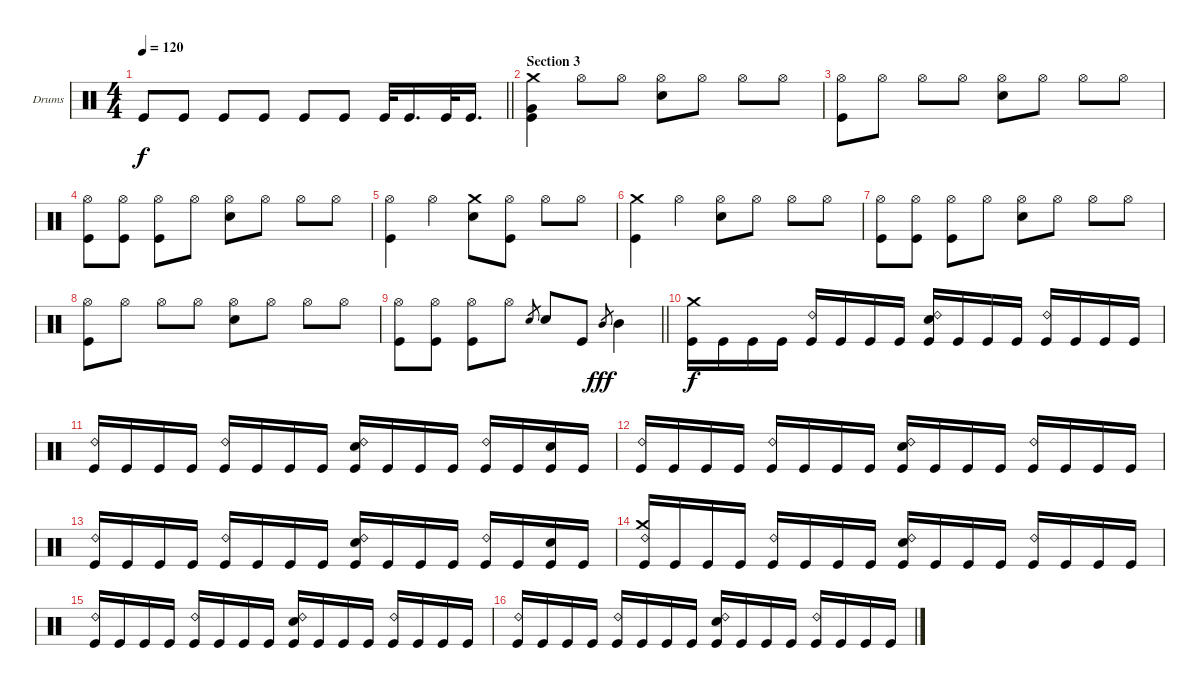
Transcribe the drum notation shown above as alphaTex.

\defaultSystemsLayout 4
\bracketExtendMode groupsimilarinstruments
\firstSystemTrackNameOrientation horizontal
\otherSystemsTrackNameOrientation horizontal
\track ("Drums" "Drums") {instrument percussion}
\staff {score}
\articulation defaults
\ts (4 4)
\tempo 120
\clef neutral
\barLineRight lightlight
\ks c "Kick (hit)".8{dy f} "Kick (hit)".8 "Kick (hit)".8 "Kick (hit)".8 "Kick (hit)".8 "Kick (hit)".8 "Kick (hit)".32 "Kick (hit)".16{d} "Kick (hit)".32 "Kick (hit)".16{d}
|
\section ("" "Section 3")
("Kick (hit)" "Very Low Tom (hit)" "Crash medium (hit)").4 "Hi-Hat (open)".8 "Hi-Hat (open)".8 ("Snare (hit) 2" "Hi-Hat (open)").8 "Hi-Hat (open)".8 "Hi-Hat (open)".8 "Hi-Hat (open)".8 |
("Hi-Hat (open)" "Kick (hit)").8 "Hi-Hat (open)".8 "Hi-Hat (open)".8 "Hi-Hat (open)".8 ("Hi-Hat (open)" "Snare (hit) 2").8 "Hi-Hat (open)".8 "Hi-Hat (open)".8 "Hi-Hat (open)".8 |
("Hi-Hat (open)" "Kick (hit)").8 ("Hi-Hat (open)" "Kick (hit)").8 ("Hi-Hat (open)" "Kick (hit)").8 "Hi-Hat (open)".8 ("Hi-Hat (open)" "Snare (hit) 2").8 "Hi-Hat (open)".8 "Hi-Hat (open)".8 "Hi-Hat (open)".8 |
("Hi-Hat (open)" "Kick (hit)").4 "Hi-Hat (open)".4 ("Snare (hit) 2" "Crash medium (hit)").8 ("Hi-Hat (open)" "Kick (hit)").8 "Hi-Hat (open)".8 "Hi-Hat (open)".8 |
("Kick (hit)" "Crash medium (hit)").4 "Hi-Hat (open)".4 ("Snare (hit) 2" "Hi-Hat (open)").8 "Hi-Hat (open)".8 "Hi-Hat (open)".8 "Hi-Hat (open)".8 |
("Hi-Hat (open)" "Kick (hit)").8 ("Hi-Hat (open)" "Kick (hit)").8 ("Hi-Hat (open)" "Kick (hit)").8 "Hi-Hat (open)".8 ("Hi-Hat (open)" "Snare (hit) 2").8 "Hi-Hat (open)".8 "Hi-Hat (open)".8 "Hi-Hat (open)".8 |
("Hi-Hat (open)" "Kick (hit)").8 "Hi-Hat (open)".8 "Hi-Hat (open)".8 "Hi-Hat (open)".8 ("Hi-Hat (open)" "Snare (hit) 2").8 "Hi-Hat (open)".8 "Hi-Hat (open)".8 "Hi-Hat (open)".8 |
\barLineRight lightlight
("Hi-Hat (open)" "Kick (hit)").8 ("Hi-Hat (open)" "Kick (hit)").8 ("Hi-Hat (open)" "Kick (hit)").8 "Hi-Hat (open)".8 "Snare (hit) 2".8{gr} "Snare (hit) 2".8 "Kick (hit)".8 "Mid Tom (hit)".8{gr dy fff} "Mid Tom (hit)".4 |
("Kick (hit)" "Crash medium (hit)").16{dy f} "Kick (hit)".16 "Kick (hit)".16 "Kick (hit)".16 ("Kick (hit)" "Ride (bell) 2").16 "Kick (hit)".16 "Kick (hit)".16 "Kick (hit)".16 ("Ride (bell) 2" "Snare (hit) 2" "Kick (hit)").16 "Kick (hit)".16 "Kick (hit)".16 "Kick (hit)".16 ("Ride (bell) 2" "Kick (hit)").16 "Kick (hit)".16 "Kick (hit)".16 "Kick (hit)".16 |
("Kick (hit)" "Ride (bell) 2").16 "Kick (hit)".16 "Kick (hit)".16 "Kick (hit)".16 ("Kick (hit)" "Ride (bell) 2").16 "Kick (hit)".16 "Kick (hit)".16 "Kick (hit)".16 ("Ride (bell) 2" "Snare (hit) 2" "Kick (hit)").16 "Kick (hit)".16 "Kick (hit)".16 "Kick (hit)".16 ("Ride (bell) 2" "Kick (hit)").16 "Kick (hit)".16 ("Kick (hit)" "Snare (hit) 2").16 "Kick (hit)".16 |
("Kick (hit)" "Ride (bell) 2").16 "Kick (hit)".16 "Kick (hit)".16 "Kick (hit)".16 ("Kick (hit)" "Ride (bell) 2").16 "Kick (hit)".16 "Kick (hit)".16 "Kick (hit)".16 ("Ride (bell) 2" "Snare (hit) 2" "Kick (hit)").16 "Kick (hit)".16 "Kick (hit)".16 "Kick (hit)".16 ("Kick (hit)" "Ride (bell) 2").16 "Kick (hit)".16 "Kick (hit)".16 "Kick (hit)".16 |
("Kick (hit)" "Ride (bell) 2").16 "Kick (hit)".16 "Kick (hit)".16 "Kick (hit)".16 ("Kick (hit)" "Ride (bell) 2").16 "Kick (hit)".16 "Kick (hit)".16 "Kick (hit)".16 ("Ride (bell) 2" "Snare (hit) 2" "Kick (hit)").16 "Kick (hit)".16 "Kick (hit)".16 "Kick (hit)".16 ("Kick (hit)" "Ride (bell) 2").16 "Kick (hit)".16 ("Kick (hit)" "Snare (hit) 2").16 "Kick (hit)".16 |
("Kick (hit)" "Ride (bell) 2" "Crash medium (hit)").16 "Kick (hit)".16 "Kick (hit)".16 "Kick (hit)".16 ("Kick (hit)" "Ride (bell) 2").16 "Kick (hit)".16 "Kick (hit)".16 "Kick (hit)".16 ("Ride (bell) 2" "Snare (hit) 2" "Kick (hit)").16 "Kick (hit)".16 "Kick (hit)".16 "Kick (hit)".16 ("Ride (bell) 2" "Kick (hit)").16 "Kick (hit)".16 "Kick (hit)".16 "Kick (hit)".16 |
("Kick (hit)" "Ride (bell) 2").16 "Kick (hit)".16 "Kick (hit)".16 "Kick (hit)".16 ("Kick (hit)" "Ride (bell) 2").16 "Kick (hit)".16 "Kick (hit)".16 "Kick (hit)".16 ("Ride (bell) 2" "Snare (hit) 2" "Kick (hit)").16 "Kick (hit)".16 "Kick (hit)".16 "Kick (hit)".16 ("Ride (bell) 2" "Kick (hit)").16 "Kick (hit)".16 "Kick (hit)".16 "Kick (hit)".16 |
("Kick (hit)" "Ride (bell) 2").16 "Kick (hit)".16 "Kick (hit)".16 "Kick (hit)".16 ("Kick (hit)" "Ride (bell) 2").16 "Kick (hit)".16 "Kick (hit)".16 "Kick (hit)".16 ("Ride (bell) 2" "Snare (hit) 2" "Kick (hit)").16 "Kick (hit)".16 "Kick (hit)".16 "Kick (hit)".16 ("Ride (bell) 2" "Kick (hit)").16 "Kick (hit)".16 "Kick (hit)".16 "Kick (hit)".16
